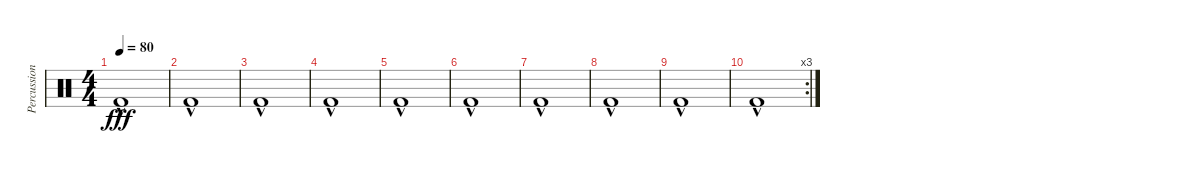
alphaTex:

\track ("Percussion" "Percussion") {instrument percussion bank 255}
\staff {score}
\articulation defaults
\ts (4 4)
\tempo 80
\clef neutral
\ks c "Kick (hit) 2"{hac}.1{dy fff}
|
"Kick (hit) 2"{hac}.1 |
"Kick (hit) 2"{hac}.1 |
"Kick (hit) 2"{hac}.1 |
"Kick (hit) 2"{hac}.1 |
"Kick (hit) 2"{hac}.1 |
"Kick (hit) 2"{hac}.1 |
"Kick (hit) 2"{hac}.1 |
"Kick (hit) 2"{hac}.1 |
\rc 3 "Kick (hit) 2"{hac}.1
